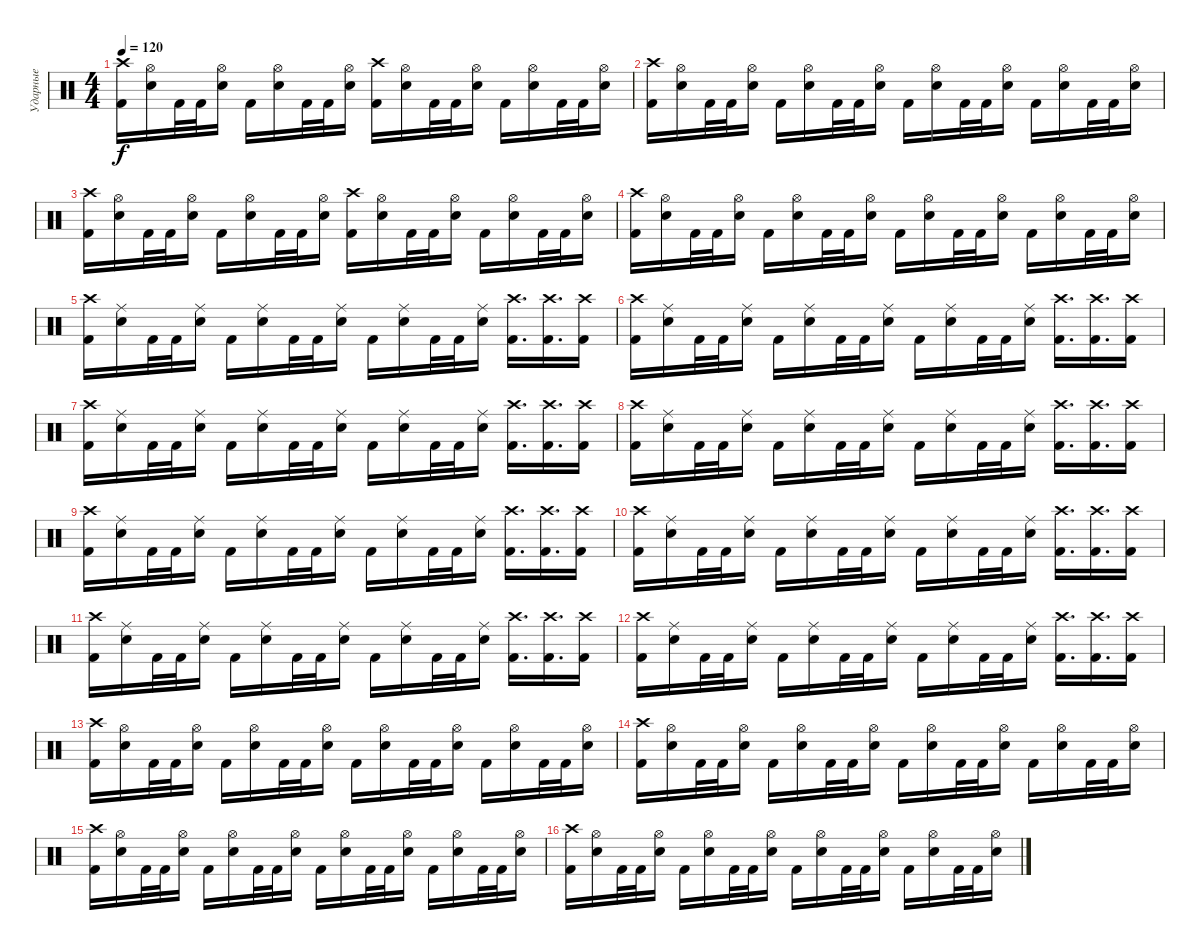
\track ("Ударные" "Ударные") {instrument percussion}
\staff {score}
\articulation defaults
\ts (4 4)
\tempo 120
\clef neutral
\ks c
("Kick (hit) 2" "Crash high (hit)").16{dy f} ("Electric Snare (hit)" "Hi-Hat (open)").16 "Kick (hit) 2".32 "Kick (hit) 2".32 ("Electric Snare (hit)" "Hi-Hat (open)").16 "Kick (hit) 2".16 ("Electric Snare (hit)" "Hi-Hat (open)").16 "Kick (hit) 2".32 "Kick (hit) 2".32 ("Electric Snare (hit)" "Hi-Hat (open)").16 ("Kick (hit) 2" "Crash high (hit)").16 ("Electric Snare (hit)" "Hi-Hat (open)").16 "Kick (hit) 2".32 "Kick (hit) 2".32 ("Electric Snare (hit)" "Hi-Hat (open)").16 "Kick (hit) 2".16 ("Electric Snare (hit)" "Hi-Hat (open)").16 "Kick (hit) 2".32 "Kick (hit) 2".32 ("Electric Snare (hit)" "Hi-Hat (open)").16 |
("Kick (hit) 2" "Crash high (hit)").16 ("Electric Snare (hit)" "Hi-Hat (open)").16 "Kick (hit) 2".32 "Kick (hit) 2".32 ("Electric Snare (hit)" "Hi-Hat (open)").16 "Kick (hit) 2".16 ("Electric Snare (hit)" "Hi-Hat (open)").16 "Kick (hit) 2".32 "Kick (hit) 2".32 ("Electric Snare (hit)" "Hi-Hat (open)").16 "Kick (hit) 2".16 ("Electric Snare (hit)" "Hi-Hat (open)").16 "Kick (hit) 2".32 "Kick (hit) 2".32 ("Electric Snare (hit)" "Hi-Hat (open)").16 "Kick (hit) 2".16 ("Electric Snare (hit)" "Hi-Hat (open)").16 "Kick (hit) 2".32 "Kick (hit) 2".32 ("Electric Snare (hit)" "Hi-Hat (open)").16 |
("Kick (hit) 2" "Crash high (hit)").16 ("Electric Snare (hit)" "Hi-Hat (open)").16 "Kick (hit) 2".32 "Kick (hit) 2".32 ("Electric Snare (hit)" "Hi-Hat (open)").16 "Kick (hit) 2".16 ("Electric Snare (hit)" "Hi-Hat (open)").16 "Kick (hit) 2".32 "Kick (hit) 2".32 ("Electric Snare (hit)" "Hi-Hat (open)").16 ("Kick (hit) 2" "Crash high (hit)").16 ("Electric Snare (hit)" "Hi-Hat (open)").16 "Kick (hit) 2".32 "Kick (hit) 2".32 ("Electric Snare (hit)" "Hi-Hat (open)").16 "Kick (hit) 2".16 ("Electric Snare (hit)" "Hi-Hat (open)").16 "Kick (hit) 2".32 "Kick (hit) 2".32 ("Electric Snare (hit)" "Hi-Hat (open)").16 |
("Kick (hit) 2" "Crash high (hit)").16 ("Electric Snare (hit)" "Hi-Hat (open)").16 "Kick (hit) 2".32 "Kick (hit) 2".32 ("Electric Snare (hit)" "Hi-Hat (open)").16 "Kick (hit) 2".16 ("Electric Snare (hit)" "Hi-Hat (open)").16 "Kick (hit) 2".32 "Kick (hit) 2".32 ("Electric Snare (hit)" "Hi-Hat (open)").16 "Kick (hit) 2".16 ("Electric Snare (hit)" "Hi-Hat (open)").16 "Kick (hit) 2".32 "Kick (hit) 2".32 ("Electric Snare (hit)" "Hi-Hat (open)").16 "Kick (hit) 2".16 ("Electric Snare (hit)" "Hi-Hat (open)").16 "Kick (hit) 2".32 "Kick (hit) 2".32 ("Electric Snare (hit)" "Hi-Hat (open)").16 |
("Kick (hit) 2" "Crash high (hit)").16 ("Electric Snare (hit)" "Ride (middle)").16 "Kick (hit) 2".32 "Kick (hit) 2".32 ("Electric Snare (hit)" "Ride (middle)").16 "Kick (hit) 2".16 ("Electric Snare (hit)" "Ride (middle)").16 "Kick (hit) 2".32 "Kick (hit) 2".32 ("Electric Snare (hit)" "Ride (middle)").16 "Kick (hit) 2".16 ("Electric Snare (hit)" "Ride (middle)").16 "Kick (hit) 2".32 "Kick (hit) 2".32 ("Electric Snare (hit)" "Ride (middle)").16 ("Kick (hit) 2" "Crash high (hit)").16{d} ("Kick (hit) 2" "Crash high (hit)").16{d} ("Kick (hit) 2" "Crash high (hit)").16 |
("Kick (hit) 2" "Crash high (hit)").16 ("Electric Snare (hit)" "Ride (middle)").16 "Kick (hit) 2".32 "Kick (hit) 2".32 ("Electric Snare (hit)" "Ride (middle)").16 "Kick (hit) 2".16 ("Electric Snare (hit)" "Ride (middle)").16 "Kick (hit) 2".32 "Kick (hit) 2".32 ("Electric Snare (hit)" "Ride (middle)").16 "Kick (hit) 2".16 ("Electric Snare (hit)" "Ride (middle)").16 "Kick (hit) 2".32 "Kick (hit) 2".32 ("Electric Snare (hit)" "Ride (middle)").16 ("Kick (hit) 2" "Crash high (hit)").16{d} ("Kick (hit) 2" "Crash high (hit)").16{d} ("Kick (hit) 2" "Crash high (hit)").16 |
("Kick (hit) 2" "Crash high (hit)").16 ("Electric Snare (hit)" "Ride (middle)").16 "Kick (hit) 2".32 "Kick (hit) 2".32 ("Electric Snare (hit)" "Ride (middle)").16 "Kick (hit) 2".16 ("Electric Snare (hit)" "Ride (middle)").16 "Kick (hit) 2".32 "Kick (hit) 2".32 ("Electric Snare (hit)" "Ride (middle)").16 "Kick (hit) 2".16 ("Electric Snare (hit)" "Ride (middle)").16 "Kick (hit) 2".32 "Kick (hit) 2".32 ("Electric Snare (hit)" "Ride (middle)").16 ("Kick (hit) 2" "Crash high (hit)").16{d} ("Kick (hit) 2" "Crash high (hit)").16{d} ("Kick (hit) 2" "Crash high (hit)").16 |
("Kick (hit) 2" "Crash high (hit)").16 ("Electric Snare (hit)" "Ride (middle)").16 "Kick (hit) 2".32 "Kick (hit) 2".32 ("Electric Snare (hit)" "Ride (middle)").16 "Kick (hit) 2".16 ("Electric Snare (hit)" "Ride (middle)").16 "Kick (hit) 2".32 "Kick (hit) 2".32 ("Electric Snare (hit)" "Ride (middle)").16 "Kick (hit) 2".16 ("Electric Snare (hit)" "Ride (middle)").16 "Kick (hit) 2".32 "Kick (hit) 2".32 ("Electric Snare (hit)" "Ride (middle)").16 ("Kick (hit) 2" "Crash high (hit)").16{d} ("Kick (hit) 2" "Crash high (hit)").16{d} ("Kick (hit) 2" "Crash high (hit)").16 |
("Kick (hit) 2" "Crash high (hit)").16 ("Electric Snare (hit)" "Ride (middle)").16 "Kick (hit) 2".32 "Kick (hit) 2".32 ("Electric Snare (hit)" "Ride (middle)").16 "Kick (hit) 2".16 ("Electric Snare (hit)" "Ride (middle)").16 "Kick (hit) 2".32 "Kick (hit) 2".32 ("Electric Snare (hit)" "Ride (middle)").16 "Kick (hit) 2".16 ("Electric Snare (hit)" "Ride (middle)").16 "Kick (hit) 2".32 "Kick (hit) 2".32 ("Electric Snare (hit)" "Ride (middle)").16 ("Kick (hit) 2" "Crash high (hit)").16{d} ("Kick (hit) 2" "Crash high (hit)").16{d} ("Kick (hit) 2" "Crash high (hit)").16 |
("Kick (hit) 2" "Crash high (hit)").16 ("Electric Snare (hit)" "Ride (middle)").16 "Kick (hit) 2".32 "Kick (hit) 2".32 ("Electric Snare (hit)" "Ride (middle)").16 "Kick (hit) 2".16 ("Electric Snare (hit)" "Ride (middle)").16 "Kick (hit) 2".32 "Kick (hit) 2".32 ("Electric Snare (hit)" "Ride (middle)").16 "Kick (hit) 2".16 ("Electric Snare (hit)" "Ride (middle)").16 "Kick (hit) 2".32 "Kick (hit) 2".32 ("Electric Snare (hit)" "Ride (middle)").16 ("Kick (hit) 2" "Crash high (hit)").16{d} ("Kick (hit) 2" "Crash high (hit)").16{d} ("Kick (hit) 2" "Crash high (hit)").16 |
("Kick (hit) 2" "Crash high (hit)").16 ("Electric Snare (hit)" "Ride (middle)").16 "Kick (hit) 2".32 "Kick (hit) 2".32 ("Electric Snare (hit)" "Ride (middle)").16 "Kick (hit) 2".16 ("Electric Snare (hit)" "Ride (middle)").16 "Kick (hit) 2".32 "Kick (hit) 2".32 ("Electric Snare (hit)" "Ride (middle)").16 "Kick (hit) 2".16 ("Electric Snare (hit)" "Ride (middle)").16 "Kick (hit) 2".32 "Kick (hit) 2".32 ("Electric Snare (hit)" "Ride (middle)").16 ("Kick (hit) 2" "Crash high (hit)").16{d} ("Kick (hit) 2" "Crash high (hit)").16{d} ("Kick (hit) 2" "Crash high (hit)").16 |
("Kick (hit) 2" "Crash high (hit)").16 ("Electric Snare (hit)" "Ride (middle)").16 "Kick (hit) 2".32 "Kick (hit) 2".32 ("Electric Snare (hit)" "Ride (middle)").16 "Kick (hit) 2".16 ("Electric Snare (hit)" "Ride (middle)").16 "Kick (hit) 2".32 "Kick (hit) 2".32 ("Electric Snare (hit)" "Ride (middle)").16 "Kick (hit) 2".16 ("Electric Snare (hit)" "Ride (middle)").16 "Kick (hit) 2".32 "Kick (hit) 2".32 ("Electric Snare (hit)" "Ride (middle)").16 ("Kick (hit) 2" "Crash high (hit)").16{d} ("Kick (hit) 2" "Crash high (hit)").16{d} ("Kick (hit) 2" "Crash high (hit)").16 |
("Kick (hit) 2" "Crash high (hit)").16 ("Electric Snare (hit)" "Hi-Hat (open)").16 "Kick (hit) 2".32 "Kick (hit) 2".32 ("Electric Snare (hit)" "Hi-Hat (open)").16 "Kick (hit) 2".16 ("Electric Snare (hit)" "Hi-Hat (open)").16 "Kick (hit) 2".32 "Kick (hit) 2".32 ("Electric Snare (hit)" "Hi-Hat (open)").16 "Kick (hit) 2".16 ("Electric Snare (hit)" "Hi-Hat (open)").16 "Kick (hit) 2".32 "Kick (hit) 2".32 ("Electric Snare (hit)" "Hi-Hat (open)").16 "Kick (hit) 2".16 ("Electric Snare (hit)" "Hi-Hat (open)").16 "Kick (hit) 2".32 "Kick (hit) 2".32 ("Electric Snare (hit)" "Hi-Hat (open)").16 |
("Kick (hit) 2" "Crash high (hit)").16 ("Electric Snare (hit)" "Hi-Hat (open)").16 "Kick (hit) 2".32 "Kick (hit) 2".32 ("Electric Snare (hit)" "Hi-Hat (open)").16 "Kick (hit) 2".16 ("Electric Snare (hit)" "Hi-Hat (open)").16 "Kick (hit) 2".32 "Kick (hit) 2".32 ("Electric Snare (hit)" "Hi-Hat (open)").16 "Kick (hit) 2".16 ("Electric Snare (hit)" "Hi-Hat (open)").16 "Kick (hit) 2".32 "Kick (hit) 2".32 ("Electric Snare (hit)" "Hi-Hat (open)").16 "Kick (hit) 2".16 ("Electric Snare (hit)" "Hi-Hat (open)").16 "Kick (hit) 2".32 "Kick (hit) 2".32 ("Electric Snare (hit)" "Hi-Hat (open)").16 |
("Kick (hit) 2" "Crash high (hit)").16 ("Electric Snare (hit)" "Hi-Hat (open)").16 "Kick (hit) 2".32 "Kick (hit) 2".32 ("Electric Snare (hit)" "Hi-Hat (open)").16 "Kick (hit) 2".16 ("Electric Snare (hit)" "Hi-Hat (open)").16 "Kick (hit) 2".32 "Kick (hit) 2".32 ("Electric Snare (hit)" "Hi-Hat (open)").16 "Kick (hit) 2".16 ("Electric Snare (hit)" "Hi-Hat (open)").16 "Kick (hit) 2".32 "Kick (hit) 2".32 ("Electric Snare (hit)" "Hi-Hat (open)").16 "Kick (hit) 2".16 ("Electric Snare (hit)" "Hi-Hat (open)").16 "Kick (hit) 2".32 "Kick (hit) 2".32 ("Electric Snare (hit)" "Hi-Hat (open)").16 |
("Kick (hit) 2" "Crash high (hit)").16 ("Electric Snare (hit)" "Hi-Hat (open)").16 "Kick (hit) 2".32 "Kick (hit) 2".32 ("Electric Snare (hit)" "Hi-Hat (open)").16 "Kick (hit) 2".16 ("Electric Snare (hit)" "Hi-Hat (open)").16 "Kick (hit) 2".32 "Kick (hit) 2".32 ("Electric Snare (hit)" "Hi-Hat (open)").16 "Kick (hit) 2".16 ("Electric Snare (hit)" "Hi-Hat (open)").16 "Kick (hit) 2".32 "Kick (hit) 2".32 ("Electric Snare (hit)" "Hi-Hat (open)").16 "Kick (hit) 2".16 ("Electric Snare (hit)" "Hi-Hat (open)").16 "Kick (hit) 2".32 "Kick (hit) 2".32 ("Electric Snare (hit)" "Hi-Hat (open)").16
